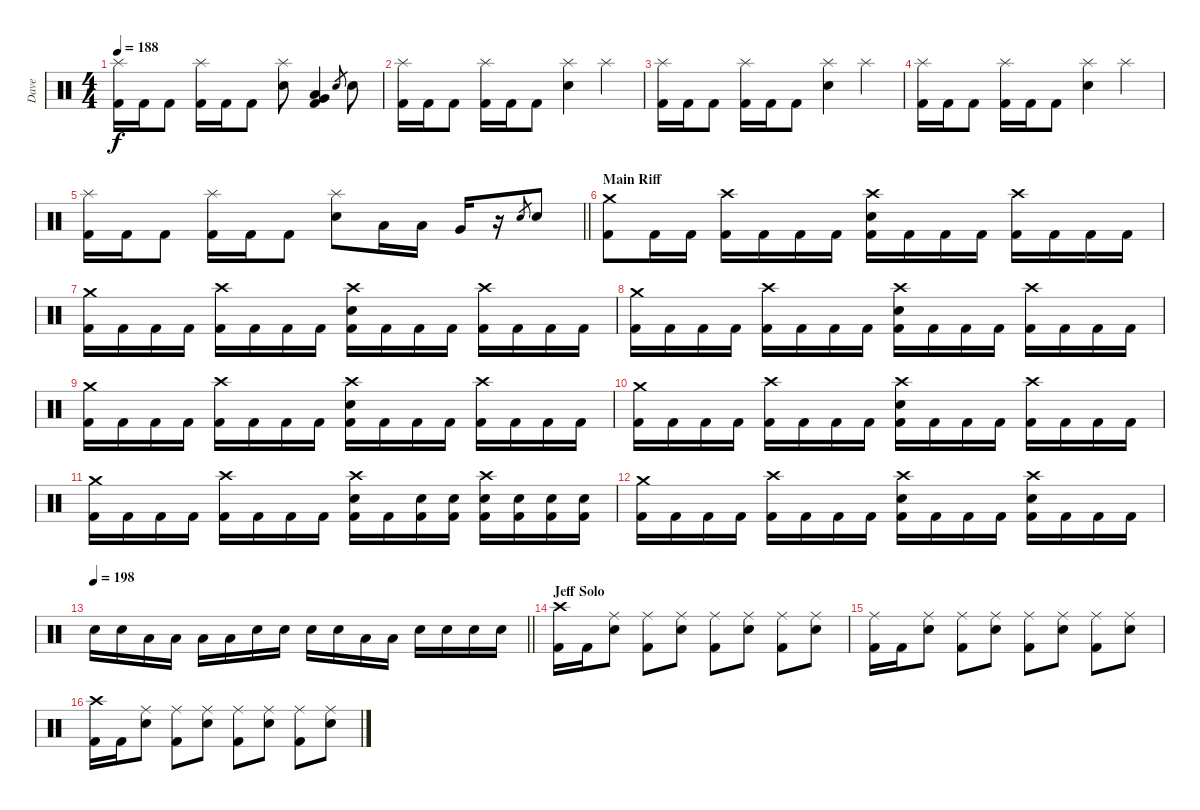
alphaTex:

\track ("Dave" "Dave") {instrument percussion}
\staff {score}
\articulation defaults
\ts (4 4)
\tempo 188
\clef neutral
\ks c
("Kick (hit) 2" "Splash (hit)").16{dy f} "Kick (hit) 2".16 "Kick (hit) 2".8 ("Kick (hit) 2" "Splash (hit)").16 "Kick (hit) 2".16 "Kick (hit) 2".8 ("Electric Snare (hit)" "Splash (hit)").8 ("Kick (hit) 2" "Very Low Tom (hit)" "Low Floor Tom (hit)").4 "Electric Snare (hit)".8{gr} "Electric Snare (hit)".8 |
("Kick (hit) 2" "Splash (hit)").16 "Kick (hit) 2".16 "Kick (hit) 2".8 ("Kick (hit) 2" "Splash (hit)").16 "Kick (hit) 2".16 "Kick (hit) 2".8 ("Electric Snare (hit)" "Splash (hit)").4 "Splash (hit)".4 |
("Kick (hit) 2" "Splash (hit)").16 "Kick (hit) 2".16 "Kick (hit) 2".8 ("Kick (hit) 2" "Splash (hit)").16 "Kick (hit) 2".16 "Kick (hit) 2".8 ("Electric Snare (hit)" "Splash (hit)").4 "Splash (hit)".4 |
("Kick (hit) 2" "Splash (hit)").16 "Kick (hit) 2".16 "Kick (hit) 2".8 ("Kick (hit) 2" "Splash (hit)").16 "Kick (hit) 2".16 "Kick (hit) 2".8 ("Electric Snare (hit)" "Splash (hit)").4 "Splash (hit)".4 |
\barLineRight lightlight
("Kick (hit) 2" "Splash (hit)").16 "Kick (hit) 2".16 "Kick (hit) 2".8 ("Kick (hit) 2" "Splash (hit)").16 "Kick (hit) 2".16 "Kick (hit) 2".8 ("Electric Snare (hit)" "Splash (hit)").8 "Low Tom (hit)".16 "Low Tom (hit)".16 "Very Low Tom (hit)".16 r.16 "Electric Snare (hit)".8{gr} "Electric Snare (hit)".8 |
\section ("" "Main Riff")
("Crash medium (hit)" "Kick (hit) 2").8 "Kick (hit) 2".16 "Kick (hit) 2".16 ("Crash high (hit)" "Kick (hit) 2").16 "Kick (hit) 2".16 "Kick (hit) 2".16 "Kick (hit) 2".16 ("Crash high (hit)" "Electric Snare (hit)" "Kick (hit) 2").16 "Kick (hit) 2".16 "Kick (hit) 2".16 "Kick (hit) 2".16 ("Crash high (hit)" "Kick (hit) 2").16 "Kick (hit) 2".16 "Kick (hit) 2".16 "Kick (hit) 2".16 |
("Crash medium (hit)" "Kick (hit) 2").16 "Kick (hit) 2".16 "Kick (hit) 2".16 "Kick (hit) 2".16 ("Crash high (hit)" "Kick (hit) 2").16 "Kick (hit) 2".16 "Kick (hit) 2".16 "Kick (hit) 2".16 ("Crash high (hit)" "Electric Snare (hit)" "Kick (hit) 2").16 "Kick (hit) 2".16 "Kick (hit) 2".16 "Kick (hit) 2".16 ("Crash high (hit)" "Kick (hit) 2").16 "Kick (hit) 2".16 "Kick (hit) 2".16 "Kick (hit) 2".16 |
("Crash medium (hit)" "Kick (hit) 2").16 "Kick (hit) 2".16 "Kick (hit) 2".16 "Kick (hit) 2".16 ("Crash high (hit)" "Kick (hit) 2").16 "Kick (hit) 2".16 "Kick (hit) 2".16 "Kick (hit) 2".16 ("Crash high (hit)" "Electric Snare (hit)" "Kick (hit) 2").16 "Kick (hit) 2".16 "Kick (hit) 2".16 "Kick (hit) 2".16 ("Crash high (hit)" "Kick (hit) 2").16 "Kick (hit) 2".16 "Kick (hit) 2".16 "Kick (hit) 2".16 |
("Crash medium (hit)" "Kick (hit) 2").16 "Kick (hit) 2".16 "Kick (hit) 2".16 "Kick (hit) 2".16 ("Crash high (hit)" "Kick (hit) 2").16 "Kick (hit) 2".16 "Kick (hit) 2".16 "Kick (hit) 2".16 ("Crash high (hit)" "Electric Snare (hit)" "Kick (hit) 2").16 "Kick (hit) 2".16 "Kick (hit) 2".16 "Kick (hit) 2".16 ("Crash high (hit)" "Kick (hit) 2").16 "Kick (hit) 2".16 "Kick (hit) 2".16 "Kick (hit) 2".16 |
("Crash medium (hit)" "Kick (hit) 2").16 "Kick (hit) 2".16 "Kick (hit) 2".16 "Kick (hit) 2".16 ("Crash high (hit)" "Kick (hit) 2").16 "Kick (hit) 2".16 "Kick (hit) 2".16 "Kick (hit) 2".16 ("Crash high (hit)" "Electric Snare (hit)" "Kick (hit) 2").16 "Kick (hit) 2".16 "Kick (hit) 2".16 "Kick (hit) 2".16 ("Crash high (hit)" "Kick (hit) 2").16 "Kick (hit) 2".16 "Kick (hit) 2".16 "Kick (hit) 2".16 |
("Crash medium (hit)" "Kick (hit) 2").16 "Kick (hit) 2".16 "Kick (hit) 2".16 "Kick (hit) 2".16 ("Crash high (hit)" "Kick (hit) 2").16 "Kick (hit) 2".16 "Kick (hit) 2".16 "Kick (hit) 2".16 ("Crash high (hit)" "Electric Snare (hit)" "Kick (hit) 2").16 "Kick (hit) 2".16 ("Electric Snare (hit)" "Kick (hit) 2").16 ("Electric Snare (hit)" "Kick (hit) 2").16 ("Crash high (hit)" "Electric Snare (hit)" "Kick (hit) 2").16 ("Electric Snare (hit)" "Kick (hit) 2").16 ("Electric Snare (hit)" "Kick (hit) 2").16 ("Electric Snare (hit)" "Kick (hit) 2").16 |
("Crash medium (hit)" "Kick (hit) 2").16 "Kick (hit) 2".16 "Kick (hit) 2".16 "Kick (hit) 2".16 ("Crash high (hit)" "Kick (hit) 2").16 "Kick (hit) 2".16 "Kick (hit) 2".16 "Kick (hit) 2".16 ("Crash high (hit)" "Electric Snare (hit)" "Kick (hit) 2").16 "Kick (hit) 2".16 "Kick (hit) 2".16 "Kick (hit) 2".16 ("Crash high (hit)" "Electric Snare (hit)" "Kick (hit) 2").16 "Kick (hit) 2".16 "Kick (hit) 2".16 "Kick (hit) 2".16 |
\tempo 198
\barLineRight lightlight "Electric Snare (hit)".16 "Electric Snare (hit)".16 "Low Tom (hit)".16 "Low Tom (hit)".16 "Low Tom (hit)".16 "Low Tom (hit)".16 "Electric Snare (hit)".16 "Electric Snare (hit)".16 "Electric Snare (hit)".16 "Electric Snare (hit)".16 "Low Tom (hit)".16 "Low Tom (hit)".16 "Electric Snare (hit)".16 "Electric Snare (hit)".16 "Electric Snare (hit)".16 "Electric Snare (hit)".16
|
\section ("" "Jeff Solo")
("Kick (hit) 2" "Crash high (hit)").16 "Kick (hit) 2".16 ("Electric Snare (hit)" "Ride (middle)").8 ("Kick (hit) 2" "Ride (middle)").8 ("Electric Snare (hit)" "Ride (middle)").8 ("Kick (hit) 2" "Ride (middle)").8 ("Electric Snare (hit)" "Ride (middle)").8 ("Kick (hit) 2" "Ride (middle)").8 ("Electric Snare (hit)" "Ride (middle)").8 |
("Kick (hit) 2" "Ride (middle)").16 "Kick (hit) 2".16 ("Electric Snare (hit)" "Ride (middle)").8 ("Kick (hit) 2" "Ride (middle)").8 ("Electric Snare (hit)" "Ride (middle)").8 ("Kick (hit) 2" "Ride (middle)").8 ("Electric Snare (hit)" "Ride (middle)").8 ("Kick (hit) 2" "Ride (middle)").8 ("Electric Snare (hit)" "Ride (middle)").8 |
("Kick (hit) 2" "Crash high (hit)").16 "Kick (hit) 2".16 ("Electric Snare (hit)" "Ride (middle)").8 ("Kick (hit) 2" "Ride (middle)").8 ("Electric Snare (hit)" "Ride (middle)").8 ("Kick (hit) 2" "Ride (middle)").8 ("Electric Snare (hit)" "Ride (middle)").8 ("Kick (hit) 2" "Ride (middle)").8 ("Electric Snare (hit)" "Ride (middle)").8
